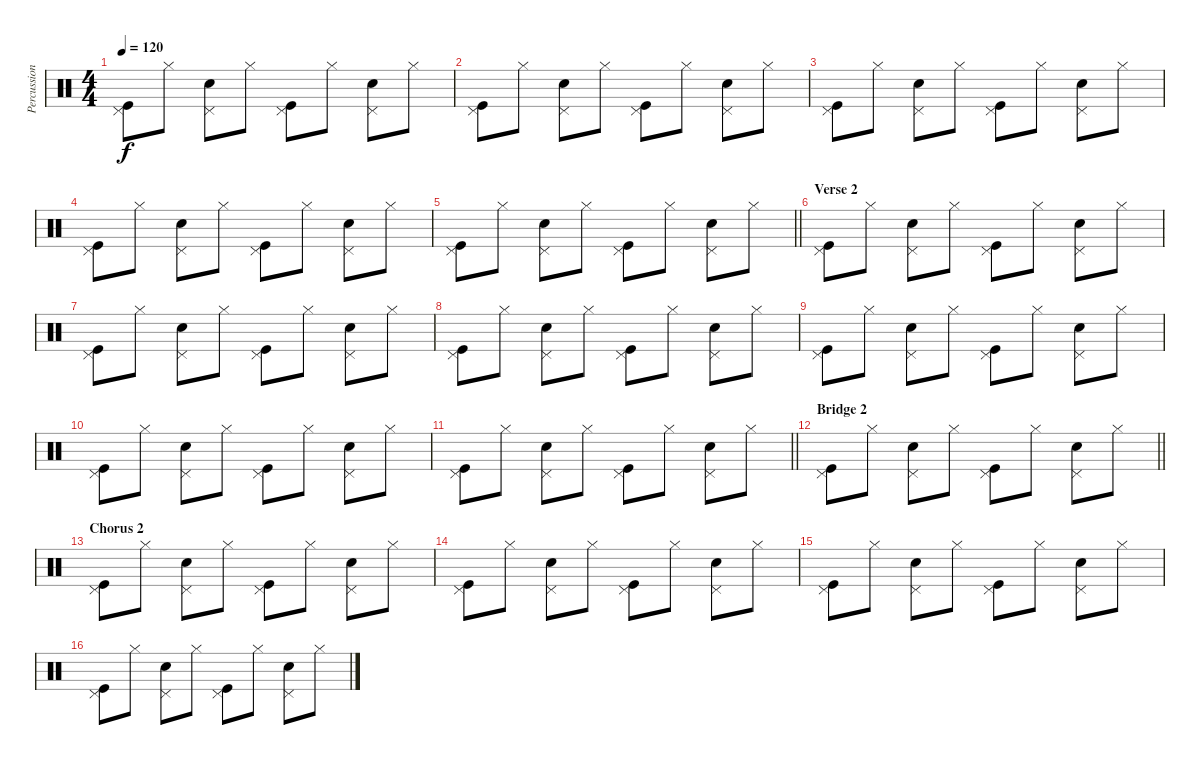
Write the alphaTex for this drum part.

\track ("Percussion - Ian Astbury" "Percussion") {instrument percussion}
\staff {score}
\articulation defaults
\ts (4 4)
\tempo 120
\clef neutral
\ks c
("Pedal Hi-Hat (hit)" "Kick (hit)").8{dy f} "Hi-Hat (closed)".8 ("Pedal Hi-Hat (hit)" "Electric Snare (hit)").8 "Hi-Hat (closed)".8 ("Pedal Hi-Hat (hit)" "Kick (hit)").8 "Hi-Hat (closed)".8 ("Pedal Hi-Hat (hit)" "Electric Snare (hit)").8 "Hi-Hat (closed)".8 |
("Pedal Hi-Hat (hit)" "Kick (hit)").8 "Hi-Hat (closed)".8 ("Pedal Hi-Hat (hit)" "Electric Snare (hit)").8 "Hi-Hat (closed)".8 ("Pedal Hi-Hat (hit)" "Kick (hit)").8 "Hi-Hat (closed)".8 ("Pedal Hi-Hat (hit)" "Electric Snare (hit)").8 "Hi-Hat (closed)".8 |
("Pedal Hi-Hat (hit)" "Kick (hit)").8 "Hi-Hat (closed)".8 ("Pedal Hi-Hat (hit)" "Electric Snare (hit)").8 "Hi-Hat (closed)".8 ("Pedal Hi-Hat (hit)" "Kick (hit)").8 "Hi-Hat (closed)".8 ("Pedal Hi-Hat (hit)" "Electric Snare (hit)").8 "Hi-Hat (closed)".8 |
("Pedal Hi-Hat (hit)" "Kick (hit)").8 "Hi-Hat (closed)".8 ("Pedal Hi-Hat (hit)" "Electric Snare (hit)").8 "Hi-Hat (closed)".8 ("Pedal Hi-Hat (hit)" "Kick (hit)").8 "Hi-Hat (closed)".8 ("Pedal Hi-Hat (hit)" "Electric Snare (hit)").8 "Hi-Hat (closed)".8 |
\barLineRight lightlight
("Pedal Hi-Hat (hit)" "Kick (hit)").8 "Hi-Hat (closed)".8 ("Pedal Hi-Hat (hit)" "Electric Snare (hit)").8 "Hi-Hat (closed)".8 ("Pedal Hi-Hat (hit)" "Kick (hit)").8 "Hi-Hat (closed)".8 ("Pedal Hi-Hat (hit)" "Electric Snare (hit)").8 "Hi-Hat (closed)".8 |
\section ("" "Verse 2")
("Pedal Hi-Hat (hit)" "Kick (hit)").8 "Hi-Hat (closed)".8 ("Pedal Hi-Hat (hit)" "Electric Snare (hit)").8 "Hi-Hat (closed)".8 ("Pedal Hi-Hat (hit)" "Kick (hit)").8 "Hi-Hat (closed)".8 ("Pedal Hi-Hat (hit)" "Electric Snare (hit)").8 "Hi-Hat (closed)".8 |
("Pedal Hi-Hat (hit)" "Kick (hit)").8 "Hi-Hat (closed)".8 ("Pedal Hi-Hat (hit)" "Electric Snare (hit)").8 "Hi-Hat (closed)".8 ("Pedal Hi-Hat (hit)" "Kick (hit)").8 "Hi-Hat (closed)".8 ("Pedal Hi-Hat (hit)" "Electric Snare (hit)").8 "Hi-Hat (closed)".8 |
("Pedal Hi-Hat (hit)" "Kick (hit)").8 "Hi-Hat (closed)".8 ("Pedal Hi-Hat (hit)" "Electric Snare (hit)").8 "Hi-Hat (closed)".8 ("Pedal Hi-Hat (hit)" "Kick (hit)").8 "Hi-Hat (closed)".8 ("Pedal Hi-Hat (hit)" "Electric Snare (hit)").8 "Hi-Hat (closed)".8 |
("Pedal Hi-Hat (hit)" "Kick (hit)").8 "Hi-Hat (closed)".8 ("Pedal Hi-Hat (hit)" "Electric Snare (hit)").8 "Hi-Hat (closed)".8 ("Pedal Hi-Hat (hit)" "Kick (hit)").8 "Hi-Hat (closed)".8 ("Pedal Hi-Hat (hit)" "Electric Snare (hit)").8 "Hi-Hat (closed)".8 |
("Pedal Hi-Hat (hit)" "Kick (hit)").8 "Hi-Hat (closed)".8 ("Pedal Hi-Hat (hit)" "Electric Snare (hit)").8 "Hi-Hat (closed)".8 ("Pedal Hi-Hat (hit)" "Kick (hit)").8 "Hi-Hat (closed)".8 ("Pedal Hi-Hat (hit)" "Electric Snare (hit)").8 "Hi-Hat (closed)".8 |
\barLineRight lightlight
("Pedal Hi-Hat (hit)" "Kick (hit)").8 "Hi-Hat (closed)".8 ("Pedal Hi-Hat (hit)" "Electric Snare (hit)").8 "Hi-Hat (closed)".8 ("Pedal Hi-Hat (hit)" "Kick (hit)").8 "Hi-Hat (closed)".8 ("Pedal Hi-Hat (hit)" "Electric Snare (hit)").8 "Hi-Hat (closed)".8 |
\section ("" "Bridge 2")
\barLineRight lightlight
("Pedal Hi-Hat (hit)" "Kick (hit)").8 "Hi-Hat (closed)".8 ("Pedal Hi-Hat (hit)" "Electric Snare (hit)").8 "Hi-Hat (closed)".8 ("Pedal Hi-Hat (hit)" "Kick (hit)").8 "Hi-Hat (closed)".8 ("Pedal Hi-Hat (hit)" "Electric Snare (hit)").8 "Hi-Hat (closed)".8 |
\section ("" "Chorus 2")
("Pedal Hi-Hat (hit)" "Kick (hit)").8 "Hi-Hat (closed)".8 ("Pedal Hi-Hat (hit)" "Electric Snare (hit)").8 "Hi-Hat (closed)".8 ("Pedal Hi-Hat (hit)" "Kick (hit)").8 "Hi-Hat (closed)".8 ("Pedal Hi-Hat (hit)" "Electric Snare (hit)").8 "Hi-Hat (closed)".8 |
("Pedal Hi-Hat (hit)" "Kick (hit)").8 "Hi-Hat (closed)".8 ("Pedal Hi-Hat (hit)" "Electric Snare (hit)").8 "Hi-Hat (closed)".8 ("Pedal Hi-Hat (hit)" "Kick (hit)").8 "Hi-Hat (closed)".8 ("Pedal Hi-Hat (hit)" "Electric Snare (hit)").8 "Hi-Hat (closed)".8 |
("Pedal Hi-Hat (hit)" "Kick (hit)").8 "Hi-Hat (closed)".8 ("Pedal Hi-Hat (hit)" "Electric Snare (hit)").8 "Hi-Hat (closed)".8 ("Pedal Hi-Hat (hit)" "Kick (hit)").8 "Hi-Hat (closed)".8 ("Pedal Hi-Hat (hit)" "Electric Snare (hit)").8 "Hi-Hat (closed)".8 |
("Pedal Hi-Hat (hit)" "Kick (hit)").8 "Hi-Hat (closed)".8 ("Pedal Hi-Hat (hit)" "Electric Snare (hit)").8 "Hi-Hat (closed)".8 ("Pedal Hi-Hat (hit)" "Kick (hit)").8 "Hi-Hat (closed)".8 ("Pedal Hi-Hat (hit)" "Electric Snare (hit)").8 "Hi-Hat (closed)".8
